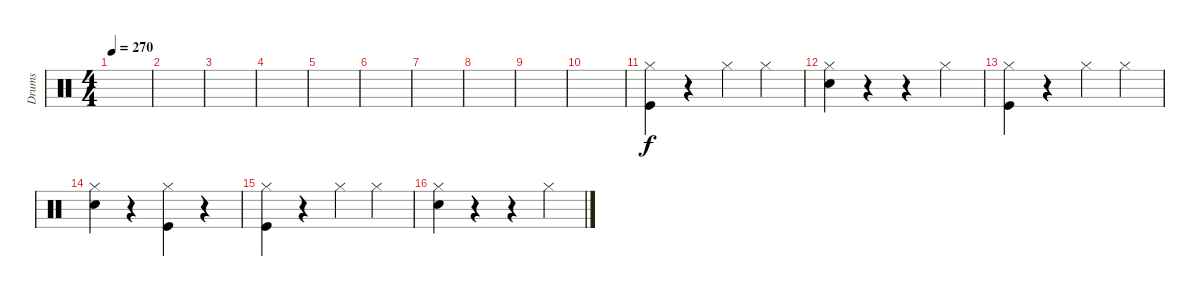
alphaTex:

\track ("Drums" "Drums") {instrument percussion}
\staff {score}
\articulation defaults
\ts (4 4)
\tempo 270
\clef neutral
\ks c
|
|
|
|
|
|
|
|
|
|
("Kick (hit)" "Hi-Hat (closed)").4 r.4 "Hi-Hat (closed)".4 "Hi-Hat (closed)".4 |
("Snare (hit) 2" "Hi-Hat (closed)").4 r.4 r.4 "Hi-Hat (closed)".4 |
("Kick (hit)" "Hi-Hat (closed)").4 r.4 "Hi-Hat (closed)".4 "Hi-Hat (closed)".4 |
("Snare (hit) 2" "Hi-Hat (closed)").4 r.4 ("Kick (hit)" "Hi-Hat (closed)").4 r.4 |
("Kick (hit)" "Hi-Hat (closed)").4 r.4 "Hi-Hat (closed)".4 "Hi-Hat (closed)".4 |
("Snare (hit) 2" "Hi-Hat (closed)").4 r.4 r.4 "Hi-Hat (closed)".4
